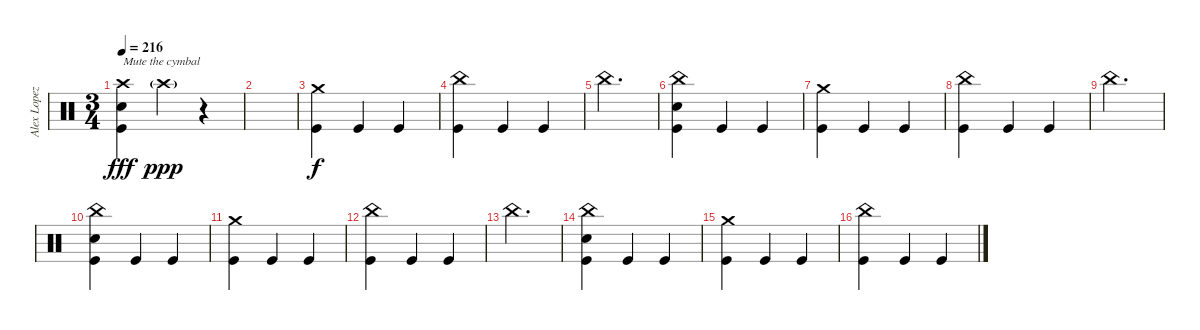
\track ("Alex Lopez" "Alex Lopez") {instrument percussion}
\staff {score}
\articulation defaults
\ts (3 4)
\tempo 216
\clef neutral
\ks c
("Crash high (hit)" "Electric Snare (hit)" "Kick (hit)").4{txt "Mute the cymbal" dy fff} "Crash high (hit)"{g}.4{dy ppp} r.4 |
|
("Crash medium (hit)" "Kick (hit)").4{dy f} "Kick (hit)".4 "Kick (hit)".4 |
("China (hit)" "Kick (hit)").4 "Kick (hit)".4 "Kick (hit)".4 |
"China (hit)".2{d} |
("China (hit)" "Electric Snare (hit)" "Kick (hit)").4 "Kick (hit)".4 "Kick (hit)".4 |
("Crash medium (hit)" "Kick (hit)").4 "Kick (hit)".4 "Kick (hit)".4 |
("China (hit)" "Kick (hit)").4 "Kick (hit)".4 "Kick (hit)".4 |
"China (hit)".2{d} |
("China (hit)" "Electric Snare (hit)" "Kick (hit)").4 "Kick (hit)".4 "Kick (hit)".4 |
("Crash medium (hit)" "Kick (hit)").4 "Kick (hit)".4 "Kick (hit)".4 |
("China (hit)" "Kick (hit)").4 "Kick (hit)".4 "Kick (hit)".4 |
"China (hit)".2{d} |
("China (hit)" "Electric Snare (hit)" "Kick (hit)").4 "Kick (hit)".4 "Kick (hit)".4 |
("Crash medium (hit)" "Kick (hit)").4 "Kick (hit)".4 "Kick (hit)".4 |
("China (hit)" "Kick (hit)").4 "Kick (hit)".4 "Kick (hit)".4
